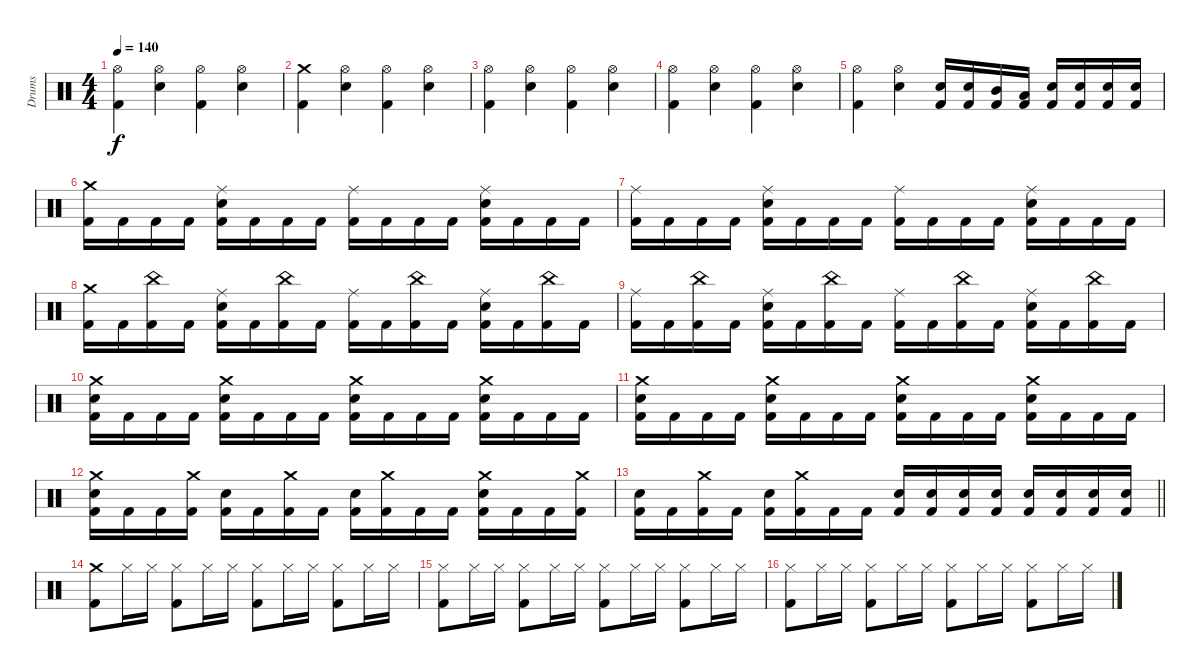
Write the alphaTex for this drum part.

\track ("Drums" "Drums") {instrument percussion}
\staff {score}
\articulation defaults
\ts (4 4)
\tempo 140
\clef neutral
\ks c
("Hi-Hat (open)" "Kick (hit) 2").4{dy f} ("Hi-Hat (open)" "Electric Snare (hit)").4 ("Hi-Hat (open)" "Kick (hit) 2").4 ("Hi-Hat (open)" "Electric Snare (hit)").4 |
("Crash medium (hit)" "Kick (hit) 2").4 ("Hi-Hat (open)" "Electric Snare (hit)").4 ("Hi-Hat (open)" "Kick (hit) 2").4 ("Hi-Hat (open)" "Electric Snare (hit)").4 |
("Hi-Hat (open)" "Kick (hit) 2").4 ("Hi-Hat (open)" "Electric Snare (hit)").4 ("Hi-Hat (open)" "Kick (hit) 2").4 ("Hi-Hat (open)" "Electric Snare (hit)").4 |
("Hi-Hat (open)" "Kick (hit) 2").4 ("Hi-Hat (open)" "Electric Snare (hit)").4 ("Hi-Hat (open)" "Kick (hit) 2").4 ("Hi-Hat (open)" "Electric Snare (hit)").4 |
("Hi-Hat (open)" "Kick (hit) 2").4 ("Hi-Hat (open)" "Electric Snare (hit)").4 ("Electric Snare (hit)" "Kick (hit) 2").16 ("Electric Snare (hit)" "Kick (hit) 2").16 ("Mid Tom (hit)" "Kick (hit) 2").16 ("Low Tom (hit)" "Kick (hit) 2").16 ("Electric Snare (hit)" "Kick (hit) 2").16 ("Electric Snare (hit)" "Kick (hit) 2").16 ("Electric Snare (hit)" "Kick (hit) 2").16 ("Electric Snare (hit)" "Kick (hit) 2").16 |
("Crash medium (hit)" "Kick (hit) 2").16 "Kick (hit) 2".16 "Kick (hit) 2".16 "Kick (hit) 2".16 ("Ride (middle)" "Electric Snare (hit)" "Kick (hit) 2").16 "Kick (hit) 2".16 "Kick (hit) 2".16 "Kick (hit) 2".16 ("Ride (middle)" "Kick (hit) 2").16 "Kick (hit) 2".16 "Kick (hit) 2".16 "Kick (hit) 2".16 ("Ride (middle)" "Electric Snare (hit)" "Kick (hit) 2").16 "Kick (hit) 2".16 "Kick (hit) 2".16 "Kick (hit) 2".16 |
("Ride (middle)" "Kick (hit) 2").16 "Kick (hit) 2".16 "Kick (hit) 2".16 "Kick (hit) 2".16 ("Ride (middle)" "Electric Snare (hit)" "Kick (hit) 2").16 "Kick (hit) 2".16 "Kick (hit) 2".16 "Kick (hit) 2".16 ("Ride (middle)" "Kick (hit) 2").16 "Kick (hit) 2".16 "Kick (hit) 2".16 "Kick (hit) 2".16 ("Ride (middle)" "Electric Snare (hit)" "Kick (hit) 2").16 "Kick (hit) 2".16 "Kick (hit) 2".16 "Kick (hit) 2".16 |
("Crash medium (hit)" "Kick (hit) 2").16 "Kick (hit) 2".16 ("China (hit)" "Kick (hit) 2").16 "Kick (hit) 2".16 ("Ride (middle)" "Electric Snare (hit)" "Kick (hit) 2").16 "Kick (hit) 2".16 ("China (hit)" "Kick (hit) 2").16 "Kick (hit) 2".16 ("Ride (middle)" "Kick (hit) 2").16 "Kick (hit) 2".16 ("China (hit)" "Kick (hit) 2").16 "Kick (hit) 2".16 ("Ride (middle)" "Electric Snare (hit)" "Kick (hit) 2").16 "Kick (hit) 2".16 ("China (hit)" "Kick (hit) 2").16 "Kick (hit) 2".16 |
("Ride (middle)" "Kick (hit) 2").16 "Kick (hit) 2".16 ("China (hit)" "Kick (hit) 2").16 "Kick (hit) 2".16 ("Ride (middle)" "Electric Snare (hit)" "Kick (hit) 2").16 "Kick (hit) 2".16 ("China (hit)" "Kick (hit) 2").16 "Kick (hit) 2".16 ("Ride (middle)" "Kick (hit) 2").16 "Kick (hit) 2".16 ("China (hit)" "Kick (hit) 2").16 "Kick (hit) 2".16 ("Ride (middle)" "Electric Snare (hit)" "Kick (hit) 2").16 "Kick (hit) 2".16 ("China (hit)" "Kick (hit) 2").16 "Kick (hit) 2".16 |
("Crash medium (hit)" "Electric Snare (hit)" "Kick (hit) 2").16 "Kick (hit) 2".16 "Kick (hit) 2".16 "Kick (hit) 2".16 ("Crash medium (hit)" "Electric Snare (hit)" "Kick (hit) 2").16 "Kick (hit) 2".16 "Kick (hit) 2".16 "Kick (hit) 2".16 ("Crash medium (hit)" "Electric Snare (hit)" "Kick (hit) 2").16 "Kick (hit) 2".16 "Kick (hit) 2".16 "Kick (hit) 2".16 ("Crash medium (hit)" "Electric Snare (hit)" "Kick (hit) 2").16 "Kick (hit) 2".16 "Kick (hit) 2".16 "Kick (hit) 2".16 |
("Crash medium (hit)" "Electric Snare (hit)" "Kick (hit) 2").16 "Kick (hit) 2".16 "Kick (hit) 2".16 "Kick (hit) 2".16 ("Crash medium (hit)" "Electric Snare (hit)" "Kick (hit) 2").16 "Kick (hit) 2".16 "Kick (hit) 2".16 "Kick (hit) 2".16 ("Crash medium (hit)" "Electric Snare (hit)" "Kick (hit) 2").16 "Kick (hit) 2".16 "Kick (hit) 2".16 "Kick (hit) 2".16 ("Crash medium (hit)" "Electric Snare (hit)" "Kick (hit) 2").16 "Kick (hit) 2".16 "Kick (hit) 2".16 "Kick (hit) 2".16 |
("Crash medium (hit)" "Electric Snare (hit)" "Kick (hit) 2").16 "Kick (hit) 2".16 "Kick (hit) 2".16 ("Crash medium (hit)" "Kick (hit) 2").16 ("Electric Snare (hit)" "Kick (hit) 2").16 "Kick (hit) 2".16 ("Crash medium (hit)" "Kick (hit) 2").16 "Kick (hit) 2".16 ("Electric Snare (hit)" "Kick (hit) 2").16 ("Crash medium (hit)" "Kick (hit) 2").16 "Kick (hit) 2".16 "Kick (hit) 2".16 ("Crash medium (hit)" "Electric Snare (hit)" "Kick (hit) 2").16 "Kick (hit) 2".16 "Kick (hit) 2".16 ("Crash medium (hit)" "Kick (hit) 2").16 |
\barLineRight lightlight
("Electric Snare (hit)" "Kick (hit) 2").16 "Kick (hit) 2".16 ("Crash medium (hit)" "Kick (hit) 2").16 "Kick (hit) 2".16 ("Electric Snare (hit)" "Kick (hit) 2").16 ("Crash medium (hit)" "Kick (hit) 2").16 "Kick (hit) 2".16 "Kick (hit) 2".16 ("Electric Snare (hit)" "Kick (hit) 2").16 ("Electric Snare (hit)" "Kick (hit) 2").16 ("Electric Snare (hit)" "Kick (hit) 2").16 ("Electric Snare (hit)" "Kick (hit) 2").16 ("Electric Snare (hit)" "Kick (hit) 2").16 ("Electric Snare (hit)" "Kick (hit) 2").16 ("Electric Snare (hit)" "Kick (hit) 2").16 ("Electric Snare (hit)" "Kick (hit) 2").16 |
("Crash medium (hit)" "Kick (hit) 2").8 "Hi-Hat (closed)".16 "Hi-Hat (closed)".16 ("Hi-Hat (closed)" "Kick (hit) 2").8 "Hi-Hat (closed)".16 "Hi-Hat (closed)".16 ("Hi-Hat (closed)" "Kick (hit) 2").8 "Hi-Hat (closed)".16 "Hi-Hat (closed)".16 ("Hi-Hat (closed)" "Kick (hit) 2").8 "Hi-Hat (closed)".16 "Hi-Hat (closed)".16 |
("Hi-Hat (closed)" "Kick (hit) 2").8 "Hi-Hat (closed)".16 "Hi-Hat (closed)".16 ("Hi-Hat (closed)" "Kick (hit) 2").8 "Hi-Hat (closed)".16 "Hi-Hat (closed)".16 ("Hi-Hat (closed)" "Kick (hit) 2").8 "Hi-Hat (closed)".16 "Hi-Hat (closed)".16 ("Hi-Hat (closed)" "Kick (hit) 2").8 "Hi-Hat (closed)".16 "Hi-Hat (closed)".16 |
("Hi-Hat (closed)" "Kick (hit) 2").8 "Hi-Hat (closed)".16 "Hi-Hat (closed)".16 ("Hi-Hat (closed)" "Kick (hit) 2").8 "Hi-Hat (closed)".16 "Hi-Hat (closed)".16 ("Hi-Hat (closed)" "Kick (hit) 2").8 "Hi-Hat (closed)".16 "Hi-Hat (closed)".16 ("Hi-Hat (closed)" "Kick (hit) 2").8 "Hi-Hat (closed)".16 "Hi-Hat (closed)".16
